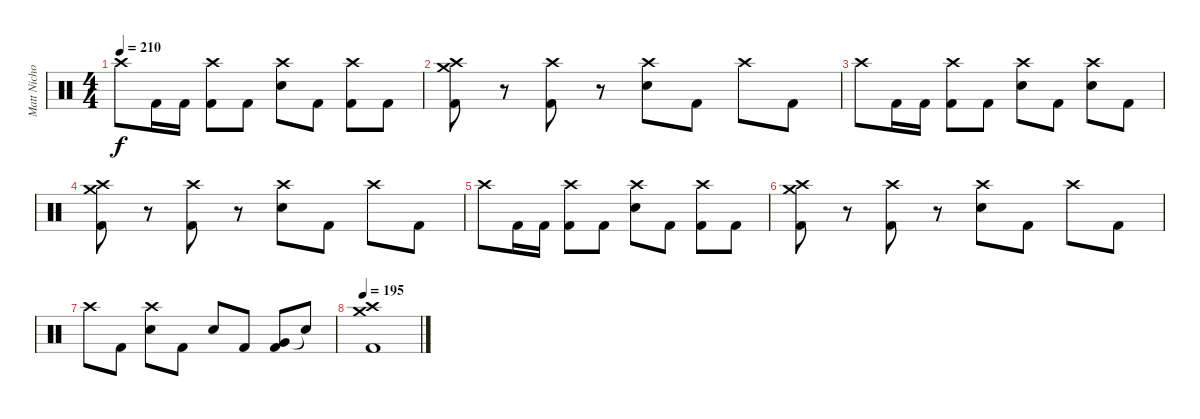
\track ("Matt Nichols" "Matt Nicho") {instrument percussion}
\staff {score}
\articulation defaults
\ts (4 4)
\tempo 210
\clef neutral
\ks c "Crash high (hit)".8{dy f} "Kick (hit) 2".16 "Kick (hit) 2".16
("Crash high (hit)" "Kick (hit) 2").8 "Kick (hit) 2".8 ("Crash high (hit)" "Snare (hit) 2").8 "Kick (hit) 2".8 ("Crash high (hit)" "Kick (hit) 2").8 "Kick (hit) 2".8 |
("Crash high (hit)" "Crash medium (hit)" "Kick (hit) 2").8 r.8 ("Crash high (hit)" "Kick (hit) 2").8 r.8 ("Crash high (hit)" "Snare (hit) 2").8 "Kick (hit) 2".8 "Crash high (hit)".8 "Kick (hit) 2".8 |
"Crash high (hit)".8 "Kick (hit) 2".16 "Kick (hit) 2".16 ("Crash high (hit)" "Kick (hit) 2").8 "Kick (hit) 2".8 ("Crash high (hit)" "Snare (hit) 2").8 "Kick (hit) 2".8 ("Crash high (hit)" "Snare (hit) 2").8 "Kick (hit) 2".8 |
("Crash high (hit)" "Crash medium (hit)" "Kick (hit) 2").8 r.8 ("Crash high (hit)" "Kick (hit) 2").8 r.8 ("Crash high (hit)" "Snare (hit) 2").8 "Kick (hit) 2".8 "Crash high (hit)".8 "Kick (hit) 2".8 |
"Crash high (hit)".8 "Kick (hit) 2".16 "Kick (hit) 2".16 ("Crash high (hit)" "Kick (hit) 2").8 "Kick (hit) 2".8 ("Crash high (hit)" "Snare (hit) 2").8 "Kick (hit) 2".8 ("Crash high (hit)" "Kick (hit) 2").8 "Kick (hit) 2".8 |
("Crash high (hit)" "Crash medium (hit)" "Kick (hit) 2").8 r.8 ("Crash high (hit)" "Kick (hit) 2").8 r.8 ("Crash high (hit)" "Snare (hit) 2").8 "Kick (hit) 2".8 "Crash high (hit)".8 "Kick (hit) 2".8 |
"Crash high (hit)".8 "Kick (hit) 2".8 ("Crash high (hit)" "Snare (hit) 2").8 "Kick (hit) 2".8 "Snare (hit) 2".8 "Kick (hit) 2".8 ("Very Low Tom (hit)" "Kick (hit) 2").8 "Snare (hit)"{t}.8 |
\tempo 195
("Crash high (hit)" "Crash medium (hit)" "Kick (hit) 2").1
